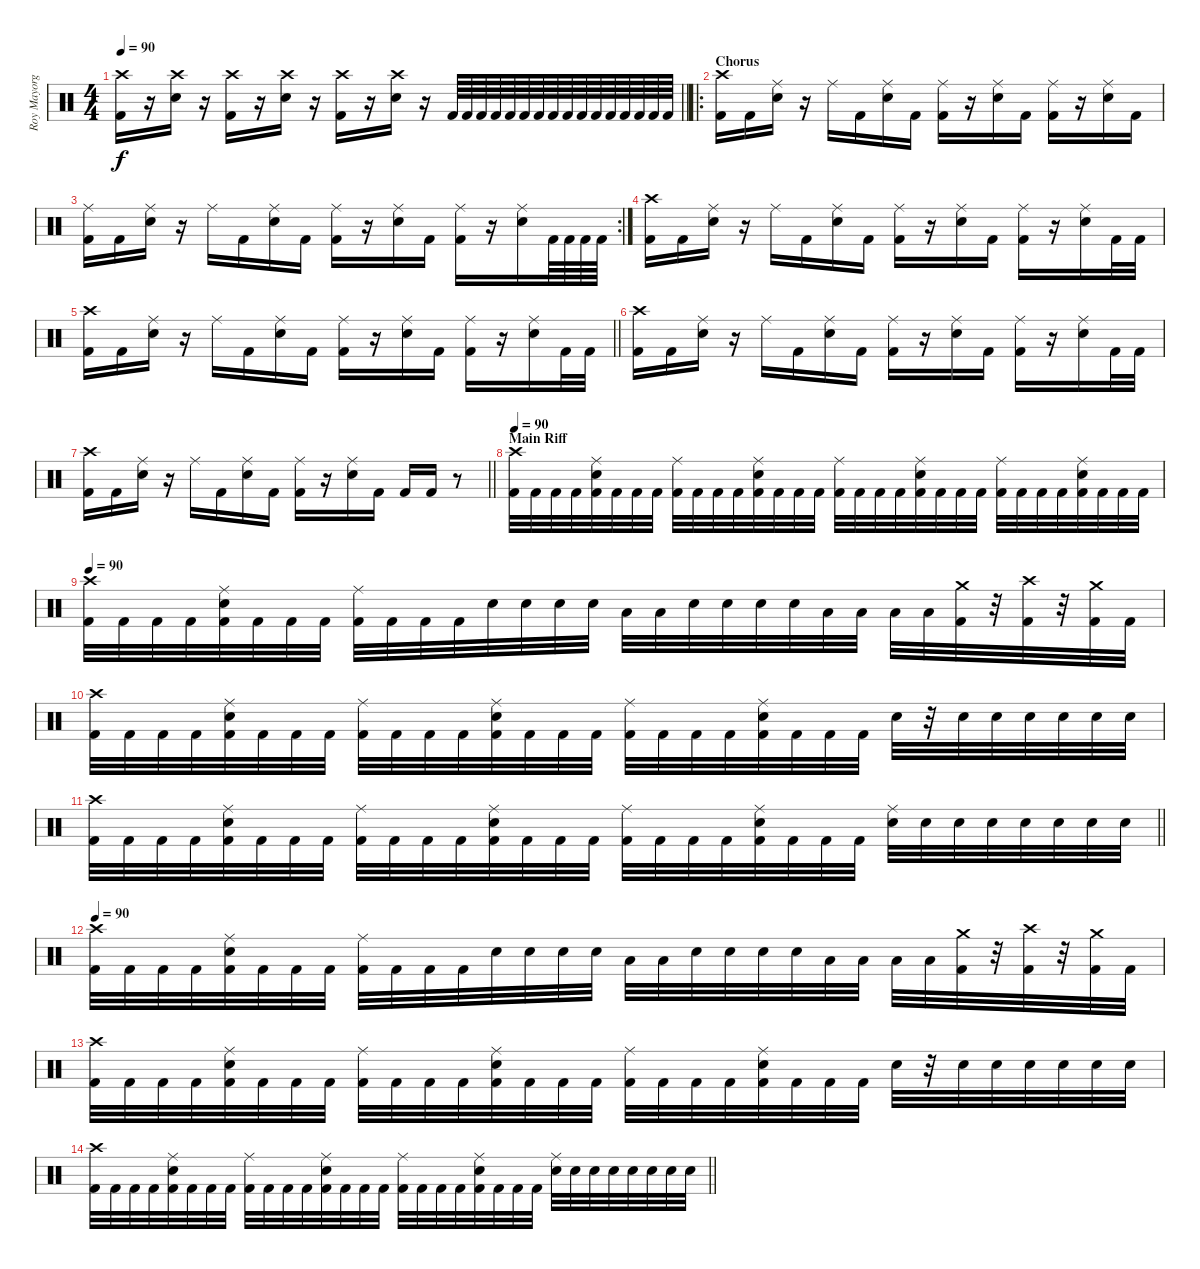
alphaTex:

\track ("Roy Mayorga" "Roy Mayorg") {instrument percussion}
\staff {score}
\articulation defaults
\ts (4 4)
\tempo 90
\clef neutral
\barLineRight lightlight
\ks c
("Kick (hit) 2" "Crash high (hit)").16{dy f} r.16 ("Electric Snare (hit)" "Crash high (hit)").16 r.16 ("Kick (hit) 2" "Crash high (hit)").16 r.16 ("Electric Snare (hit)" "Crash high (hit)").16 r.16 ("Kick (hit) 2" "Crash high (hit)").16 r.16 ("Electric Snare (hit)" "Crash high (hit)").16 r.16 "Kick (hit) 2".64 "Kick (hit) 2".64 "Kick (hit) 2".64 "Kick (hit) 2".64 "Kick (hit) 2".64 "Kick (hit) 2".64 "Kick (hit) 2".64 "Kick (hit) 2".64 "Kick (hit) 2".64 "Kick (hit) 2".64 "Kick (hit) 2".64 "Kick (hit) 2".64 "Kick (hit) 2".64 "Kick (hit) 2".64 "Kick (hit) 2".64 "Kick (hit) 2".64 |
\ro
\section ("" "Chorus")
("Kick (hit) 2" "Crash high (hit)").16 "Kick (hit) 2".16 ("Electric Snare (hit)" "Ride (middle)").16 r.16 "Ride (middle)".16 "Kick (hit) 2".16 ("Electric Snare (hit)" "Ride (middle)").16 "Kick (hit) 2".16 ("Kick (hit) 2" "Ride (middle)").16 r.16 ("Electric Snare (hit)" "Ride (middle)").16 "Kick (hit) 2".16 ("Kick (hit) 2" "Ride (middle)").16 r.16 ("Electric Snare (hit)" "Ride (middle)").16 "Kick (hit) 2".16 |
\rc 2
("Kick (hit) 2" "Ride (middle)").16 "Kick (hit) 2".16 ("Electric Snare (hit)" "Ride (middle)").16 r.16 "Ride (middle)".16 "Kick (hit) 2".16 ("Electric Snare (hit)" "Ride (middle)").16 "Kick (hit) 2".16 ("Kick (hit) 2" "Ride (middle)").16 r.16 ("Electric Snare (hit)" "Ride (middle)").16 "Kick (hit) 2".16 ("Kick (hit) 2" "Ride (middle)").16 r.16 ("Electric Snare (hit)" "Ride (middle)").16 "Kick (hit) 2".64 "Kick (hit) 2".64 "Kick (hit) 2".64 "Kick (hit) 2".64 |
("Kick (hit) 2" "Crash high (hit)").16 "Kick (hit) 2".16 ("Electric Snare (hit)" "Ride (middle)").16 r.16 "Ride (middle)".16 "Kick (hit) 2".16 ("Electric Snare (hit)" "Ride (middle)").16 "Kick (hit) 2".16 ("Kick (hit) 2" "Ride (middle)").16 r.16 ("Electric Snare (hit)" "Ride (middle)").16 "Kick (hit) 2".16 ("Kick (hit) 2" "Ride (middle)").16 r.16 ("Electric Snare (hit)" "Ride (middle)").16 "Kick (hit) 2".32 "Kick (hit) 2".32 |
\barLineRight lightlight
("Kick (hit) 2" "Crash high (hit)").16 "Kick (hit) 2".16 ("Electric Snare (hit)" "Ride (middle)").16 r.16 "Ride (middle)".16 "Kick (hit) 2".16 ("Electric Snare (hit)" "Ride (middle)").16 "Kick (hit) 2".16 ("Kick (hit) 2" "Ride (middle)").16 r.16 ("Electric Snare (hit)" "Ride (middle)").16 "Kick (hit) 2".16 ("Kick (hit) 2" "Ride (middle)").16 r.16 ("Electric Snare (hit)" "Ride (middle)").16 "Kick (hit) 2".32 "Kick (hit) 2".32 |
("Kick (hit) 2" "Crash high (hit)").16 "Kick (hit) 2".16 ("Electric Snare (hit)" "Ride (middle)").16 r.16 "Ride (middle)".16 "Kick (hit) 2".16 ("Electric Snare (hit)" "Ride (middle)").16 "Kick (hit) 2".16 ("Kick (hit) 2" "Ride (middle)").16 r.16 ("Electric Snare (hit)" "Ride (middle)").16 "Kick (hit) 2".16 ("Kick (hit) 2" "Ride (middle)").16 r.16 ("Electric Snare (hit)" "Ride (middle)").16 "Kick (hit) 2".32 "Kick (hit) 2".32 |
\barLineRight lightlight
("Kick (hit) 2" "Crash high (hit)").16 "Kick (hit) 2".16 ("Electric Snare (hit)" "Ride (middle)").16 r.16 "Ride (middle)".16 "Kick (hit) 2".16 ("Electric Snare (hit)" "Ride (middle)").16 "Kick (hit) 2".16 ("Kick (hit) 2" "Ride (middle)").16 r.16 ("Electric Snare (hit)" "Ride (middle)").16 "Kick (hit) 2".16 "Kick (hit) 2".16 "Kick (hit) 2".16 r.8 |
\section ("" "Main Riff")
\tempo 90
("Kick (hit) 2" "Crash high (hit)").32 "Kick (hit) 2".32 "Kick (hit) 2".32 "Kick (hit) 2".32 ("Kick (hit) 2" "Electric Snare (hit)" "Ride (middle)").32 "Kick (hit) 2".32 "Kick (hit) 2".32 "Kick (hit) 2".32 ("Kick (hit) 2" "Ride (middle)").32 "Kick (hit) 2".32 "Kick (hit) 2".32 "Kick (hit) 2".32 ("Kick (hit) 2" "Electric Snare (hit)" "Ride (middle)").32 "Kick (hit) 2".32 "Kick (hit) 2".32 "Kick (hit) 2".32 ("Kick (hit) 2" "Ride (middle)").32 "Kick (hit) 2".32 "Kick (hit) 2".32 "Kick (hit) 2".32 ("Kick (hit) 2" "Electric Snare (hit)" "Ride (middle)").32 "Kick (hit) 2".32 "Kick (hit) 2".32 "Kick (hit) 2".32 ("Kick (hit) 2" "Ride (middle)").32 "Kick (hit) 2".32 "Kick (hit) 2".32 "Kick (hit) 2".32 ("Kick (hit) 2" "Electric Snare (hit)" "Ride (middle)").32 "Kick (hit) 2".32 "Kick (hit) 2".32 "Kick (hit) 2".32 |
\tempo 90
("Kick (hit) 2" "Crash high (hit)").32 "Kick (hit) 2".32 "Kick (hit) 2".32 "Kick (hit) 2".32 ("Kick (hit) 2" "Electric Snare (hit)" "Ride (middle)").32 "Kick (hit) 2".32 "Kick (hit) 2".32 "Kick (hit) 2".32 ("Kick (hit) 2" "Ride (middle)").32 "Kick (hit) 2".32 "Kick (hit) 2".32 "Kick (hit) 2".32 "Electric Snare (hit)".32 "Electric Snare (hit)".32 "Electric Snare (hit)".32 "Electric Snare (hit)".32 "Low Tom (hit)".32 "Low Tom (hit)".32 "Electric Snare (hit)".32 "Electric Snare (hit)".32 "Electric Snare (hit)".32 "Electric Snare (hit)".32 "Low Tom (hit)".32 "Low Tom (hit)".32 "Low Tom (hit)".32 "Low Tom (hit)".32 ("Kick (hit) 2" "Crash medium (hit)").32 r.32 ("Kick (hit) 2" "Crash high (hit)").32 r.32 ("Kick (hit) 2" "Crash medium (hit)").32 "Kick (hit) 2".32 |
("Kick (hit) 2" "Crash high (hit)").32 "Kick (hit) 2".32 "Kick (hit) 2".32 "Kick (hit) 2".32 ("Kick (hit) 2" "Electric Snare (hit)" "Ride (middle)").32 "Kick (hit) 2".32 "Kick (hit) 2".32 "Kick (hit) 2".32 ("Kick (hit) 2" "Ride (middle)").32 "Kick (hit) 2".32 "Kick (hit) 2".32 "Kick (hit) 2".32 ("Kick (hit) 2" "Electric Snare (hit)" "Ride (middle)").32 "Kick (hit) 2".32 "Kick (hit) 2".32 "Kick (hit) 2".32 ("Kick (hit) 2" "Ride (middle)").32 "Kick (hit) 2".32 "Kick (hit) 2".32 "Kick (hit) 2".32 ("Kick (hit) 2" "Electric Snare (hit)" "Ride (middle)").32 "Kick (hit) 2".32 "Kick (hit) 2".32 "Kick (hit) 2".32 "Electric Snare (hit)".32 r.32 "Electric Snare (hit)".32 "Electric Snare (hit)".32 "Electric Snare (hit)".32 "Electric Snare (hit)".32 "Electric Snare (hit)".32 "Electric Snare (hit)".32 |
\barLineRight lightlight
("Kick (hit) 2" "Crash high (hit)").32 "Kick (hit) 2".32 "Kick (hit) 2".32 "Kick (hit) 2".32 ("Kick (hit) 2" "Electric Snare (hit)" "Ride (middle)").32 "Kick (hit) 2".32 "Kick (hit) 2".32 "Kick (hit) 2".32 ("Kick (hit) 2" "Ride (middle)").32 "Kick (hit) 2".32 "Kick (hit) 2".32 "Kick (hit) 2".32 ("Kick (hit) 2" "Electric Snare (hit)" "Ride (middle)").32 "Kick (hit) 2".32 "Kick (hit) 2".32 "Kick (hit) 2".32 ("Kick (hit) 2" "Ride (middle)").32 "Kick (hit) 2".32 "Kick (hit) 2".32 "Kick (hit) 2".32 ("Kick (hit) 2" "Electric Snare (hit)" "Ride (middle)").32 "Kick (hit) 2".32 "Kick (hit) 2".32 "Kick (hit) 2".32 ("Electric Snare (hit)" "Ride (middle)").32 "Electric Snare (hit)".32 "Electric Snare (hit)".32 "Electric Snare (hit)".32 "Electric Snare (hit)".32 "Electric Snare (hit)".32 "Electric Snare (hit)".32 "Electric Snare (hit)".32 |
\tempo 90
("Kick (hit) 2" "Crash high (hit)").32 "Kick (hit) 2".32 "Kick (hit) 2".32 "Kick (hit) 2".32 ("Kick (hit) 2" "Electric Snare (hit)" "Ride (middle)").32 "Kick (hit) 2".32 "Kick (hit) 2".32 "Kick (hit) 2".32 ("Kick (hit) 2" "Ride (middle)").32 "Kick (hit) 2".32 "Kick (hit) 2".32 "Kick (hit) 2".32 "Electric Snare (hit)".32 "Electric Snare (hit)".32 "Electric Snare (hit)".32 "Electric Snare (hit)".32 "Low Tom (hit)".32 "Low Tom (hit)".32 "Electric Snare (hit)".32 "Electric Snare (hit)".32 "Electric Snare (hit)".32 "Electric Snare (hit)".32 "Low Tom (hit)".32 "Low Tom (hit)".32 "Low Tom (hit)".32 "Low Tom (hit)".32 ("Kick (hit) 2" "Crash medium (hit)").32 r.32 ("Kick (hit) 2" "Crash high (hit)").32 r.32 ("Kick (hit) 2" "Crash medium (hit)").32 "Kick (hit) 2".32 |
("Kick (hit) 2" "Crash high (hit)").32 "Kick (hit) 2".32 "Kick (hit) 2".32 "Kick (hit) 2".32 ("Kick (hit) 2" "Electric Snare (hit)" "Ride (middle)").32 "Kick (hit) 2".32 "Kick (hit) 2".32 "Kick (hit) 2".32 ("Kick (hit) 2" "Ride (middle)").32 "Kick (hit) 2".32 "Kick (hit) 2".32 "Kick (hit) 2".32 ("Kick (hit) 2" "Electric Snare (hit)" "Ride (middle)").32 "Kick (hit) 2".32 "Kick (hit) 2".32 "Kick (hit) 2".32 ("Kick (hit) 2" "Ride (middle)").32 "Kick (hit) 2".32 "Kick (hit) 2".32 "Kick (hit) 2".32 ("Kick (hit) 2" "Electric Snare (hit)" "Ride (middle)").32 "Kick (hit) 2".32 "Kick (hit) 2".32 "Kick (hit) 2".32 "Electric Snare (hit)".32 r.32 "Electric Snare (hit)".32 "Electric Snare (hit)".32 "Electric Snare (hit)".32 "Electric Snare (hit)".32 "Electric Snare (hit)".32 "Electric Snare (hit)".32 |
\barLineRight lightlight
("Kick (hit) 2" "Crash high (hit)").32 "Kick (hit) 2".32 "Kick (hit) 2".32 "Kick (hit) 2".32 ("Kick (hit) 2" "Electric Snare (hit)" "Ride (middle)").32 "Kick (hit) 2".32 "Kick (hit) 2".32 "Kick (hit) 2".32 ("Kick (hit) 2" "Ride (middle)").32 "Kick (hit) 2".32 "Kick (hit) 2".32 "Kick (hit) 2".32 ("Kick (hit) 2" "Electric Snare (hit)" "Ride (middle)").32 "Kick (hit) 2".32 "Kick (hit) 2".32 "Kick (hit) 2".32 ("Kick (hit) 2" "Ride (middle)").32 "Kick (hit) 2".32 "Kick (hit) 2".32 "Kick (hit) 2".32 ("Kick (hit) 2" "Electric Snare (hit)" "Ride (middle)").32 "Kick (hit) 2".32 "Kick (hit) 2".32 "Kick (hit) 2".32 ("Electric Snare (hit)" "Ride (middle)").32 "Electric Snare (hit)".32 "Electric Snare (hit)".32 "Electric Snare (hit)".32 "Electric Snare (hit)".32 "Electric Snare (hit)".32 "Electric Snare (hit)".32 "Electric Snare (hit)".32
